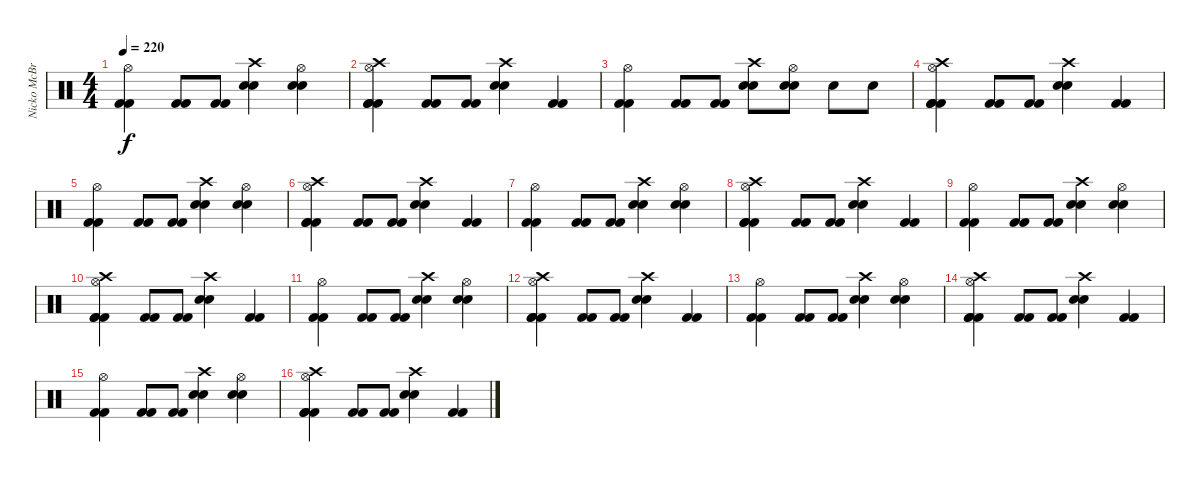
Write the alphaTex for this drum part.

\track ("Nicko McBrain" "Nicko McBr") {instrument percussion}
\staff {score}
\articulation defaults
\ts (4 4)
\tempo 220
\clef neutral
\ks c
("Hi-Hat (open)" "Kick (hit) 2" "Kick (hit) 2").4{dy f} ("Kick (hit) 2" "Kick (hit) 2").8 ("Kick (hit) 2" "Kick (hit) 2").8 ("Crash high (hit)" "Snare (hit) 2" "Snare (hit) 2").4 ("Hi-Hat (open)" "Snare (hit) 2" "Snare (hit) 2").4 |
("Crash high (hit)" "Hi-Hat (open)" "Kick (hit) 2" "Kick (hit) 2" "Kick (hit) 2").4 ("Kick (hit) 2" "Kick (hit) 2").8 ("Kick (hit) 2" "Kick (hit) 2").8 ("Crash high (hit)" "Snare (hit) 2" "Snare (hit) 2").4 ("Kick (hit) 2" "Kick (hit) 2").4 |
("Hi-Hat (open)" "Kick (hit) 2" "Kick (hit) 2").4 ("Kick (hit) 2" "Kick (hit) 2").8 ("Kick (hit) 2" "Kick (hit) 2").8 ("Crash high (hit)" "Snare (hit) 2" "Snare (hit) 2").8 ("Hi-Hat (open)" "Snare (hit) 2" "Snare (hit) 2").8 "Snare (hit) 2".8 "Snare (hit) 2".8 |
("Crash high (hit)" "Hi-Hat (open)" "Kick (hit) 2" "Kick (hit) 2" "Kick (hit) 2").4 ("Kick (hit) 2" "Kick (hit) 2").8 ("Kick (hit) 2" "Kick (hit) 2").8 ("Crash high (hit)" "Snare (hit) 2" "Snare (hit) 2").4 ("Kick (hit) 2" "Kick (hit) 2").4 |
("Hi-Hat (open)" "Kick (hit) 2" "Kick (hit) 2").4 ("Kick (hit) 2" "Kick (hit) 2").8 ("Kick (hit) 2" "Kick (hit) 2").8 ("Crash high (hit)" "Snare (hit) 2" "Snare (hit) 2").4 ("Hi-Hat (open)" "Snare (hit) 2" "Snare (hit) 2").4 |
("Crash high (hit)" "Hi-Hat (open)" "Kick (hit) 2" "Kick (hit) 2" "Kick (hit) 2").4 ("Kick (hit) 2" "Kick (hit) 2").8 ("Kick (hit) 2" "Kick (hit) 2").8 ("Crash high (hit)" "Snare (hit) 2" "Snare (hit) 2").4 ("Kick (hit) 2" "Kick (hit) 2").4 |
("Hi-Hat (open)" "Kick (hit) 2" "Kick (hit) 2").4 ("Kick (hit) 2" "Kick (hit) 2").8 ("Kick (hit) 2" "Kick (hit) 2").8 ("Crash high (hit)" "Snare (hit) 2" "Snare (hit) 2").4 ("Hi-Hat (open)" "Snare (hit) 2" "Snare (hit) 2").4 |
("Crash high (hit)" "Hi-Hat (open)" "Kick (hit) 2" "Kick (hit) 2" "Kick (hit) 2").4 ("Kick (hit) 2" "Kick (hit) 2").8 ("Kick (hit) 2" "Kick (hit) 2").8 ("Crash high (hit)" "Snare (hit) 2" "Snare (hit) 2").4 ("Kick (hit) 2" "Kick (hit) 2").4 |
("Hi-Hat (open)" "Kick (hit) 2" "Kick (hit) 2").4 ("Kick (hit) 2" "Kick (hit) 2").8 ("Kick (hit) 2" "Kick (hit) 2").8 ("Crash high (hit)" "Snare (hit) 2" "Snare (hit) 2").4 ("Hi-Hat (open)" "Snare (hit) 2" "Snare (hit) 2").4 |
("Crash high (hit)" "Hi-Hat (open)" "Kick (hit) 2" "Kick (hit) 2" "Kick (hit) 2").4 ("Kick (hit) 2" "Kick (hit) 2").8 ("Kick (hit) 2" "Kick (hit) 2").8 ("Crash high (hit)" "Snare (hit) 2" "Snare (hit) 2").4 ("Kick (hit) 2" "Kick (hit) 2").4 |
("Hi-Hat (open)" "Kick (hit) 2" "Kick (hit) 2").4 ("Kick (hit) 2" "Kick (hit) 2").8 ("Kick (hit) 2" "Kick (hit) 2").8 ("Crash high (hit)" "Snare (hit) 2" "Snare (hit) 2").4 ("Hi-Hat (open)" "Snare (hit) 2" "Snare (hit) 2").4 |
("Crash high (hit)" "Hi-Hat (open)" "Kick (hit) 2" "Kick (hit) 2" "Kick (hit) 2").4 ("Kick (hit) 2" "Kick (hit) 2").8 ("Kick (hit) 2" "Kick (hit) 2").8 ("Crash high (hit)" "Snare (hit) 2" "Snare (hit) 2").4 ("Kick (hit) 2" "Kick (hit) 2").4 |
("Hi-Hat (open)" "Kick (hit) 2" "Kick (hit) 2").4 ("Kick (hit) 2" "Kick (hit) 2").8 ("Kick (hit) 2" "Kick (hit) 2").8 ("Crash high (hit)" "Snare (hit) 2" "Snare (hit) 2").4 ("Hi-Hat (open)" "Snare (hit) 2" "Snare (hit) 2").4 |
("Crash high (hit)" "Hi-Hat (open)" "Kick (hit) 2" "Kick (hit) 2" "Kick (hit) 2").4 ("Kick (hit) 2" "Kick (hit) 2").8 ("Kick (hit) 2" "Kick (hit) 2").8 ("Crash high (hit)" "Snare (hit) 2" "Snare (hit) 2").4 ("Kick (hit) 2" "Kick (hit) 2").4 |
("Hi-Hat (open)" "Kick (hit) 2" "Kick (hit) 2").4 ("Kick (hit) 2" "Kick (hit) 2").8 ("Kick (hit) 2" "Kick (hit) 2").8 ("Crash high (hit)" "Snare (hit) 2" "Snare (hit) 2").4 ("Hi-Hat (open)" "Snare (hit) 2" "Snare (hit) 2").4 |
("Crash high (hit)" "Hi-Hat (open)" "Kick (hit) 2" "Kick (hit) 2" "Kick (hit) 2").4 ("Kick (hit) 2" "Kick (hit) 2").8 ("Kick (hit) 2" "Kick (hit) 2").8 ("Crash high (hit)" "Snare (hit) 2" "Snare (hit) 2").4 ("Kick (hit) 2" "Kick (hit) 2").4
